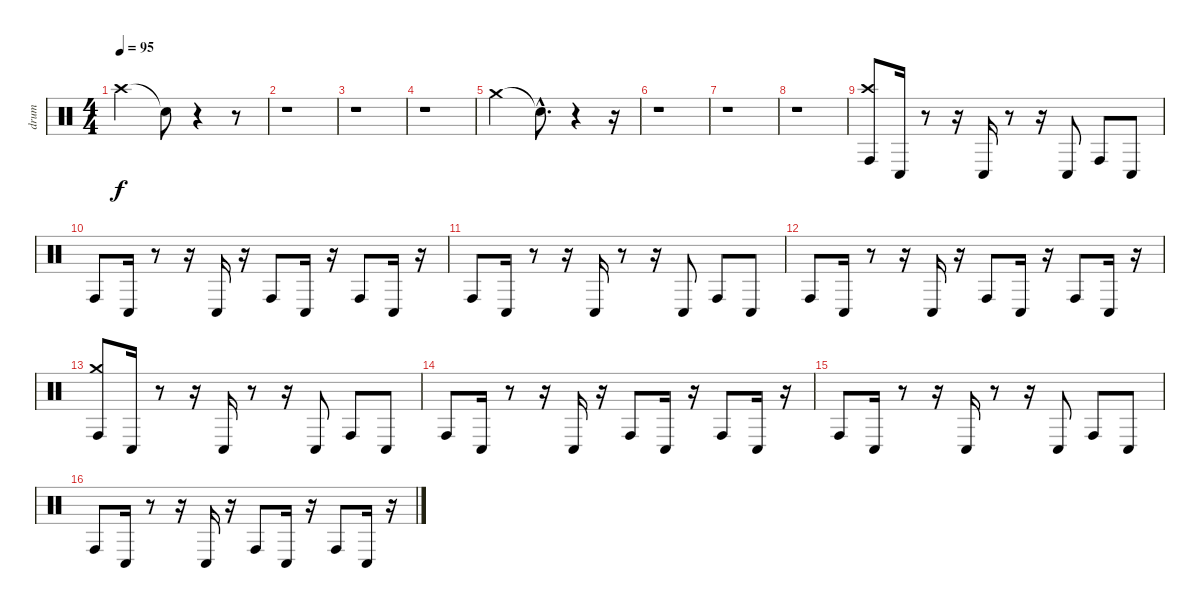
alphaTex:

\track ("drum" "drum") {instrument percussion}
\staff {score}
\articulation defaults
\ts (4 4)
\tempo 95
\clef neutral
\ks c "Crash high (hit)".2{dy f} "Snare (hit)"{t}.8
r.4 r.8 |
r.1 |
r.1 |
r.1 |
"Crash medium (hit)".2 "Snare (hit)"{hac t}.8{d} r.4 r.16 |
r.1 |
r.1 |
r.1 |
("Conga high (hit)" "Crash high (hit)").8 "Conga low (hit)".16 r.8 r.16 "Conga low (hit)".16 r.8 r.16 "Conga low (hit)".8 "Conga high (hit)".8 "Conga low (hit)".8 |
"Conga high (hit)".8 "Conga low (hit)".16 r.8 r.16 "Conga low (hit)".16 r.16 "Conga high (hit)".8 "Conga low (hit)".16 r.16 "Conga high (hit)".8 "Conga low (hit)".16 r.16 |
"Conga high (hit)".8 "Conga low (hit)".16 r.8 r.16 "Conga low (hit)".16 r.8 r.16 "Conga low (hit)".8 "Conga high (hit)".8 "Conga low (hit)".8 |
"Conga high (hit)".8 "Conga low (hit)".16 r.8 r.16 "Conga low (hit)".16 r.16 "Conga high (hit)".8 "Conga low (hit)".16 r.16 "Conga high (hit)".8 "Conga low (hit)".16 r.16 |
("Crash medium (hit)" "Conga high (hit)").8 "Conga low (hit)".16 r.8 r.16 "Conga low (hit)".16 r.8 r.16 "Conga low (hit)".8 "Conga high (hit)".8 "Conga low (hit)".8 |
"Conga high (hit)".8 "Conga low (hit)".16 r.8 r.16 "Conga low (hit)".16 r.16 "Conga high (hit)".8 "Conga low (hit)".16 r.16 "Conga high (hit)".8 "Conga low (hit)".16 r.16 |
"Conga high (hit)".8 "Conga low (hit)".16 r.8 r.16 "Conga low (hit)".16 r.8 r.16 "Conga low (hit)".8 "Conga high (hit)".8 "Conga low (hit)".8 |
"Conga high (hit)".8 "Conga low (hit)".16 r.8 r.16 "Conga low (hit)".16 r.16 "Conga high (hit)".8 "Conga low (hit)".16 r.16 "Conga high (hit)".8 "Conga low (hit)".16 r.16
